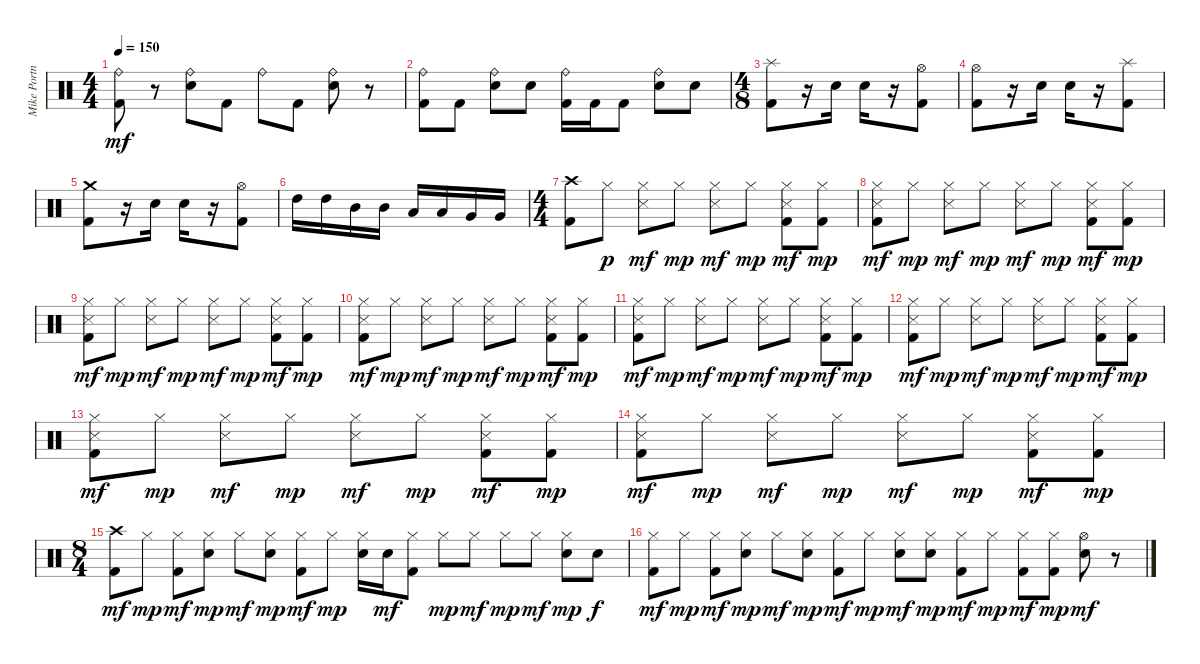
\track ("Mike Portnoy: Drums" "Mike Portn") {instrument percussion}
\staff {score}
\articulation defaults
\ts (4 4)
\tempo 150
\clef neutral
\ks c
("Kick (hit) 2" "Ride (bell)").8{dy mf} r.8 ("Electric Snare (hit)" "Ride (bell)").8 "Kick (hit) 2".8 "Ride (bell)".8 "Kick (hit) 2".8 ("Electric Snare (hit)" "Ride (bell)").8 r.8 |
("Kick (hit) 2" "Ride (bell)").8 "Kick (hit) 2".8 ("Electric Snare (hit)" "Ride (bell)").8 "Electric Snare (hit)".8 ("Kick (hit) 2" "Ride (bell)").16 "Kick (hit) 2".16 "Kick (hit) 2".8 ("Electric Snare (hit)" "Ride (bell)").8 "Electric Snare (hit)".8 |
\ts (4 8)
("Kick (hit) 2" "Splash (hit)").8 r.16 "Electric Snare (hit)".16 "Electric Snare (hit)".16 r.16 ("Kick (hit) 2" "Hi-Hat (open)").8 |
("Kick (hit) 2" "Hi-Hat (open)").8 r.16 "Electric Snare (hit)".16 "Electric Snare (hit)".16 r.16 ("Kick (hit) 2" "Splash (hit)").8 |
("Kick (hit) 2" "Crash medium (hit)").8 r.16 "Electric Snare (hit)".16 "Electric Snare (hit)".16 r.16 ("Kick (hit) 2" "Hi-Hat (open)").8 |
"High Tom (hit)".16 "High Tom (hit)".16 "Mid Tom (hit)".16 "Mid Tom (hit)".16 "Low Tom (hit)".16 "Low Tom (hit)".16 "Very Low Tom (hit)".16 "Very Low Tom (hit)".16 |
\ts (4 4)
("Kick (hit) 2" "Crash high (hit)").8 "Hi-Hat (closed)".8{dy p} ("Snare (side stick) 3" "Hi-Hat (closed)").8{dy mf} "Hi-Hat (closed)".8{dy mp} ("Snare (side stick) 3" "Hi-Hat (closed)").8{dy mf} "Hi-Hat (closed)".8{dy mp} ("Kick (hit) 2" "Snare (side stick) 3" "Hi-Hat (closed)").8{dy mf} ("Kick (hit) 2" "Hi-Hat (closed)").8{dy mp} |
("Kick (hit) 2" "Snare (side stick) 3" "Hi-Hat (closed)").8{dy mf} "Hi-Hat (closed)".8{dy mp} ("Snare (side stick) 3" "Hi-Hat (closed)").8{dy mf} "Hi-Hat (closed)".8{dy mp} ("Snare (side stick) 3" "Hi-Hat (closed)").8{dy mf} "Hi-Hat (closed)".8{dy mp} ("Kick (hit) 2" "Snare (side stick) 3" "Hi-Hat (closed)").8{dy mf} ("Kick (hit) 2" "Hi-Hat (closed)").8{dy mp} |
("Kick (hit) 2" "Snare (side stick) 3" "Hi-Hat (closed)").8{dy mf} "Hi-Hat (closed)".8{dy mp} ("Snare (side stick) 3" "Hi-Hat (closed)").8{dy mf} "Hi-Hat (closed)".8{dy mp} ("Snare (side stick) 3" "Hi-Hat (closed)").8{dy mf} "Hi-Hat (closed)".8{dy mp} ("Kick (hit) 2" "Snare (side stick) 3" "Hi-Hat (closed)").8{dy mf} ("Kick (hit) 2" "Hi-Hat (closed)").8{dy mp} |
("Kick (hit) 2" "Snare (side stick) 3" "Hi-Hat (closed)").8{dy mf} "Hi-Hat (closed)".8{dy mp} ("Snare (side stick) 3" "Hi-Hat (closed)").8{dy mf} "Hi-Hat (closed)".8{dy mp} ("Snare (side stick) 3" "Hi-Hat (closed)").8{dy mf} "Hi-Hat (closed)".8{dy mp} ("Kick (hit) 2" "Snare (side stick) 3" "Hi-Hat (closed)").8{dy mf} ("Kick (hit) 2" "Hi-Hat (closed)").8{dy mp} |
("Kick (hit) 2" "Snare (side stick) 3" "Hi-Hat (closed)").8{dy mf} "Hi-Hat (closed)".8{dy mp} ("Snare (side stick) 3" "Hi-Hat (closed)").8{dy mf} "Hi-Hat (closed)".8{dy mp} ("Snare (side stick) 3" "Hi-Hat (closed)").8{dy mf} "Hi-Hat (closed)".8{dy mp} ("Kick (hit) 2" "Snare (side stick) 3" "Hi-Hat (closed)").8{dy mf} ("Kick (hit) 2" "Hi-Hat (closed)").8{dy mp} |
("Kick (hit) 2" "Snare (side stick) 3" "Hi-Hat (closed)").8{dy mf} "Hi-Hat (closed)".8{dy mp} ("Snare (side stick) 3" "Hi-Hat (closed)").8{dy mf} "Hi-Hat (closed)".8{dy mp} ("Snare (side stick) 3" "Hi-Hat (closed)").8{dy mf} "Hi-Hat (closed)".8{dy mp} ("Kick (hit) 2" "Snare (side stick) 3" "Hi-Hat (closed)").8{dy mf} ("Kick (hit) 2" "Hi-Hat (closed)").8{dy mp} |
("Kick (hit) 2" "Snare (side stick) 3" "Hi-Hat (closed)").8{dy mf} "Hi-Hat (closed)".8{dy mp} ("Snare (side stick) 3" "Hi-Hat (closed)").8{dy mf} "Hi-Hat (closed)".8{dy mp} ("Snare (side stick) 3" "Hi-Hat (closed)").8{dy mf} "Hi-Hat (closed)".8{dy mp} ("Kick (hit) 2" "Snare (side stick) 3" "Hi-Hat (closed)").8{dy mf} ("Kick (hit) 2" "Hi-Hat (closed)").8{dy mp} |
("Kick (hit) 2" "Snare (side stick) 3" "Hi-Hat (closed)").8{dy mf} "Hi-Hat (closed)".8{dy mp} ("Snare (side stick) 3" "Hi-Hat (closed)").8{dy mf} "Hi-Hat (closed)".8{dy mp} ("Snare (side stick) 3" "Hi-Hat (closed)").8{dy mf} "Hi-Hat (closed)".8{dy mp} ("Kick (hit) 2" "Snare (side stick) 3" "Hi-Hat (closed)").8{dy mf} ("Kick (hit) 2" "Hi-Hat (closed)").8{dy mp} |
\ts (8 4)
("Kick (hit) 2" "Crash high (hit)").8{dy mf} "Hi-Hat (closed)".8{dy mp} ("Kick (hit) 2" "Hi-Hat (closed)").8{dy mf} ("Electric Snare (hit)" "Hi-Hat (closed)").8{dy mp} "Hi-Hat (closed)".8{dy mf} ("Electric Snare (hit)" "Hi-Hat (closed)").8{dy mp} ("Kick (hit) 2" "Hi-Hat (closed)").8{dy mf} "Hi-Hat (closed)".8{dy mp} ("Electric Snare (hit)" "Hi-Hat (closed)").16 "Electric Snare (hit)".16{dy mf} ("Kick (hit) 2" "Hi-Hat (closed)").8 "Hi-Hat (closed)".8{dy mp} "Hi-Hat (closed)".8{dy mf} "Hi-Hat (closed)".8{dy mp} "Hi-Hat (closed)".8{dy mf} ("Electric Snare (hit)" "Hi-Hat (closed)").8{dy mp} "Electric Snare (hit)".8{dy f} |
("Kick (hit) 2" "Hi-Hat (closed)").8{dy mf} "Hi-Hat (closed)".8{dy mp} ("Kick (hit) 2" "Hi-Hat (closed)").8{dy mf} ("Electric Snare (hit)" "Hi-Hat (closed)").8{dy mp} "Hi-Hat (closed)".8{dy mf} ("Electric Snare (hit)" "Hi-Hat (closed)").8{dy mp} ("Kick (hit) 2" "Hi-Hat (closed)").8{dy mf} "Hi-Hat (closed)".8{dy mp} ("Electric Snare (hit)" "Hi-Hat (closed)").8{dy mf} ("Electric Snare (hit)" "Hi-Hat (closed)").8{dy mp} ("Kick (hit) 2" "Hi-Hat (closed)").8{dy mf} "Hi-Hat (closed)".8{dy mp} ("Kick (hit) 2" "Hi-Hat (closed)").8{dy mf} ("Kick (hit) 2" "Hi-Hat (closed)").8{dy mp} ("Electric Snare (hit)" "Hi-Hat (open)").8{dy mf} r.8
